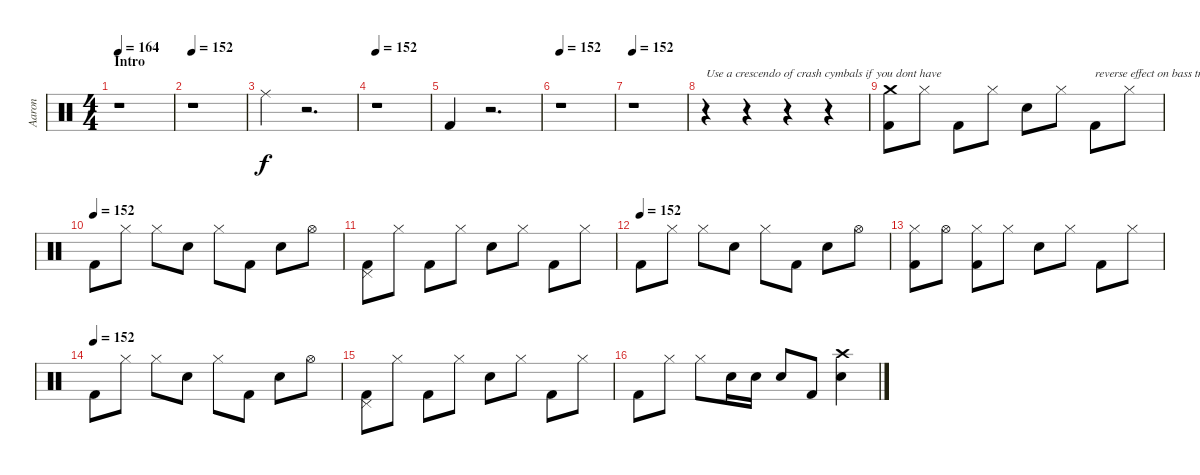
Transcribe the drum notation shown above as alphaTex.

\track ("Aaron" "Aaron") {instrument percussion}
\staff {score}
\articulation defaults
\ts (4 4)
\section ("" "Intro")
\tempo 164
\tempo 152
\tempo 164
\clef neutral
\ks c
r.1{dy f} |
\tempo 152
r.1 |
"Ride (middle)".4 r.2{d} |
\tempo 152
r.1 |
"Kick (hit) 2".4 r.2{d} |
\tempo 152
r.1 |
\tempo 152
r.1 |
r.4{txt "Use a crescendo of crash cymbals if you dont have"} r.4 r.4 r.4 |
("Crash medium (hit)" "Kick (hit) 2").8 "Hi-Hat (closed)".8 "Kick (hit) 2".8 "Hi-Hat (closed)".8 "Snare (hit) 2".8 "Hi-Hat (closed)".8 "Kick (hit) 2".8{txt "reverse effect on bass track"} "Hi-Hat (closed)".8 |
\tempo (152)
"Kick (hit) 2".8 "Hi-Hat (closed)".8 "Hi-Hat (closed)".8 "Snare (hit) 2".8 "Hi-Hat (closed)".8 "Kick (hit) 2".8 "Snare (hit) 2".8 "Hi-Hat (open)".8 |
("Pedal Hi-Hat (hit)" "Kick (hit) 2").8 "Hi-Hat (closed)".8 "Kick (hit) 2".8 "Hi-Hat (closed)".8 "Snare (hit) 2".8 "Hi-Hat (closed)".8 "Kick (hit) 2".8 "Hi-Hat (closed)".8 |
\tempo (152)
"Kick (hit) 2".8 "Hi-Hat (closed)".8 "Hi-Hat (closed)".8 "Snare (hit) 2".8 "Hi-Hat (closed)".8 "Kick (hit) 2".8 "Snare (hit) 2".8 "Hi-Hat (open)".8 |
("Hi-Hat (closed)" "Kick (hit) 2").8 "Hi-Hat (open)".8 ("Hi-Hat (closed)" "Kick (hit) 2").8 "Hi-Hat (closed)".8 "Snare (hit) 2".8 "Hi-Hat (closed)".8 "Kick (hit) 2".8 "Hi-Hat (closed)".8 |
\tempo (152)
"Kick (hit) 2".8 "Hi-Hat (closed)".8 "Hi-Hat (closed)".8 "Snare (hit) 2".8 "Hi-Hat (closed)".8 "Kick (hit) 2".8 "Snare (hit) 2".8 "Hi-Hat (open)".8 |
("Pedal Hi-Hat (hit)" "Kick (hit) 2").8 "Hi-Hat (closed)".8 "Kick (hit) 2".8 "Hi-Hat (closed)".8 "Snare (hit) 2".8 "Hi-Hat (closed)".8 "Kick (hit) 2".8 "Hi-Hat (closed)".8 |
"Kick (hit) 2".8 "Hi-Hat (closed)".8 "Hi-Hat (closed)".8 "Snare (hit) 2".16 "Snare (hit) 2".16 "Snare (hit) 2".8 "Kick (hit) 2".8 ("Crash high (hit)" "Snare (hit) 2").4
